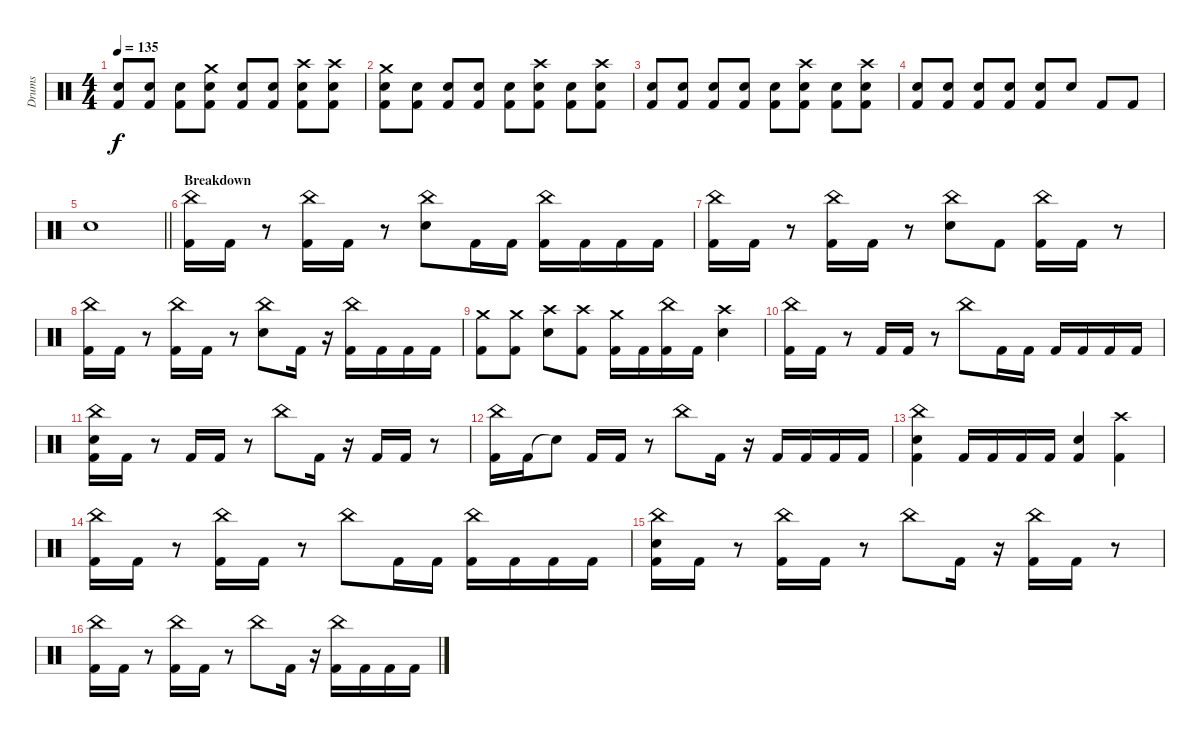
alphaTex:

\track ("Drums" "Drums") {instrument percussion}
\staff {score}
\articulation defaults
\ts (4 4)
\tempo 135
\clef neutral
\ks c
("Electric Snare (hit)" "Kick (hit) 2").8{dy f} ("Electric Snare (hit)" "Kick (hit) 2").8 ("Electric Snare (hit)" "Kick (hit) 2").8 ("Crash medium (hit)" "Electric Snare (hit)" "Kick (hit) 2").8 ("Electric Snare (hit)" "Kick (hit) 2").8 ("Electric Snare (hit)" "Kick (hit) 2").8 ("Crash high (hit)" "Electric Snare (hit)" "Kick (hit) 2").8 ("Crash high (hit)" "Electric Snare (hit)" "Kick (hit) 2").8 |
("Crash medium (hit)" "Electric Snare (hit)" "Kick (hit) 2").8 ("Electric Snare (hit)" "Kick (hit) 2").8 ("Electric Snare (hit)" "Kick (hit) 2").8 ("Electric Snare (hit)" "Kick (hit) 2").8 ("Electric Snare (hit)" "Kick (hit) 2").8 ("Crash high (hit)" "Electric Snare (hit)" "Kick (hit) 2").8 ("Electric Snare (hit)" "Kick (hit) 2").8 ("Crash high (hit)" "Electric Snare (hit)" "Kick (hit) 2").8 |
("Electric Snare (hit)" "Kick (hit) 2").8 ("Electric Snare (hit)" "Kick (hit) 2").8 ("Electric Snare (hit)" "Kick (hit) 2").8 ("Electric Snare (hit)" "Kick (hit) 2").8 ("Electric Snare (hit)" "Kick (hit) 2").8 ("Crash high (hit)" "Electric Snare (hit)" "Kick (hit) 2").8 ("Electric Snare (hit)" "Kick (hit) 2").8 ("Crash high (hit)" "Electric Snare (hit)" "Kick (hit) 2").8 |
("Electric Snare (hit)" "Kick (hit) 2").8 ("Electric Snare (hit)" "Kick (hit) 2").8 ("Electric Snare (hit)" "Kick (hit) 2").8 ("Electric Snare (hit)" "Kick (hit) 2").8 ("Electric Snare (hit)" "Kick (hit) 2").8 "Electric Snare (hit)".8 "Kick (hit) 2".8 "Kick (hit) 2".8 |
\barLineRight lightlight "Electric Snare (hit)".1
|
\section ("" "Breakdown")
("China (hit)" "Kick (hit) 2").16 "Kick (hit) 2".16 r.8 ("China (hit)" "Kick (hit) 2").16 "Kick (hit) 2".16 r.8 ("China (hit)" "Electric Snare (hit)").8 "Kick (hit) 2".16 "Kick (hit) 2".16 ("China (hit)" "Kick (hit) 2").16 "Kick (hit) 2".16 "Kick (hit) 2".16 "Kick (hit) 2".16 |
("China (hit)" "Kick (hit) 2").16 "Kick (hit) 2".16 r.8 ("China (hit)" "Kick (hit) 2").16 "Kick (hit) 2".16 r.8 ("China (hit)" "Electric Snare (hit)").8 "Kick (hit) 2".8 ("China (hit)" "Kick (hit) 2").16 "Kick (hit) 2".16 r.8 |
("China (hit)" "Kick (hit) 2").16 "Kick (hit) 2".16 r.8 ("China (hit)" "Kick (hit) 2").16 "Kick (hit) 2".16 r.8 ("China (hit)" "Electric Snare (hit)").8 "Kick (hit) 2".16 r.16 ("China (hit)" "Kick (hit) 2").16 "Kick (hit) 2".16 "Kick (hit) 2".16 "Kick (hit) 2".16 |
("Crash medium (hit)" "Kick (hit) 2").8 ("Crash medium (hit)" "Kick (hit) 2").8 ("Crash high (hit)" "Electric Snare (hit)").8 ("Crash high (hit)" "Kick (hit) 2").8 ("Crash medium (hit)" "Kick (hit) 2").16 "Kick (hit) 2".16 ("China (hit)" "Kick (hit) 2").16 "Kick (hit) 2".16 ("Crash high (hit)" "Electric Snare (hit)").4 |
("China (hit)" "Kick (hit) 2").16 "Kick (hit) 2".16 r.8 "Kick (hit) 2".16 "Kick (hit) 2".16 r.8 "China (hit)".8 "Kick (hit) 2".16 "Kick (hit) 2".16 "Kick (hit) 2".16 "Kick (hit) 2".16 "Kick (hit) 2".16 "Kick (hit) 2".16 |
("China (hit)" "Electric Snare (hit)" "Kick (hit) 2").16 "Kick (hit) 2".16 r.8 "Kick (hit) 2".16 "Kick (hit) 2".16 r.8 "China (hit)".8 "Kick (hit) 2".16 r.16 "Kick (hit) 2".16 "Kick (hit) 2".16 r.8 |
("China (hit)" "Kick (hit) 2").16 "Kick (hit) 2".16 "Snare (hit)"{t}.8 "Kick (hit) 2".16 "Kick (hit) 2".16 r.8 "China (hit)".8 "Kick (hit) 2".16 r.16 "Kick (hit) 2".16 "Kick (hit) 2".16 "Kick (hit) 2".16 "Kick (hit) 2".16 |
("China (hit)" "Electric Snare (hit)" "Kick (hit) 2").4 "Kick (hit) 2".16 "Kick (hit) 2".16 "Kick (hit) 2".16 "Kick (hit) 2".16 ("Electric Snare (hit)" "Kick (hit) 2").4 ("Crash high (hit)" "Kick (hit) 2").4 |
("China (hit)" "Kick (hit) 2").16 "Kick (hit) 2".16 r.8 ("China (hit)" "Kick (hit) 2").16 "Kick (hit) 2".16 r.8 "China (hit)".8 "Kick (hit) 2".16 "Kick (hit) 2".16 ("China (hit)" "Kick (hit) 2").16 "Kick (hit) 2".16 "Kick (hit) 2".16 "Kick (hit) 2".16 |
("China (hit)" "Electric Snare (hit)" "Kick (hit) 2").16 "Kick (hit) 2".16 r.8 ("China (hit)" "Kick (hit) 2").16 "Kick (hit) 2".16 r.8 "China (hit)".8 "Kick (hit) 2".16 r.16 ("China (hit)" "Kick (hit) 2").16 "Kick (hit) 2".16 r.8 |
("China (hit)" "Kick (hit) 2").16 "Kick (hit) 2".16 r.8 ("China (hit)" "Kick (hit) 2").16 "Kick (hit) 2".16 r.8 "China (hit)".8 "Kick (hit) 2".16 r.16 ("China (hit)" "Kick (hit) 2").16 "Kick (hit) 2".16 "Kick (hit) 2".16 "Kick (hit) 2".16
